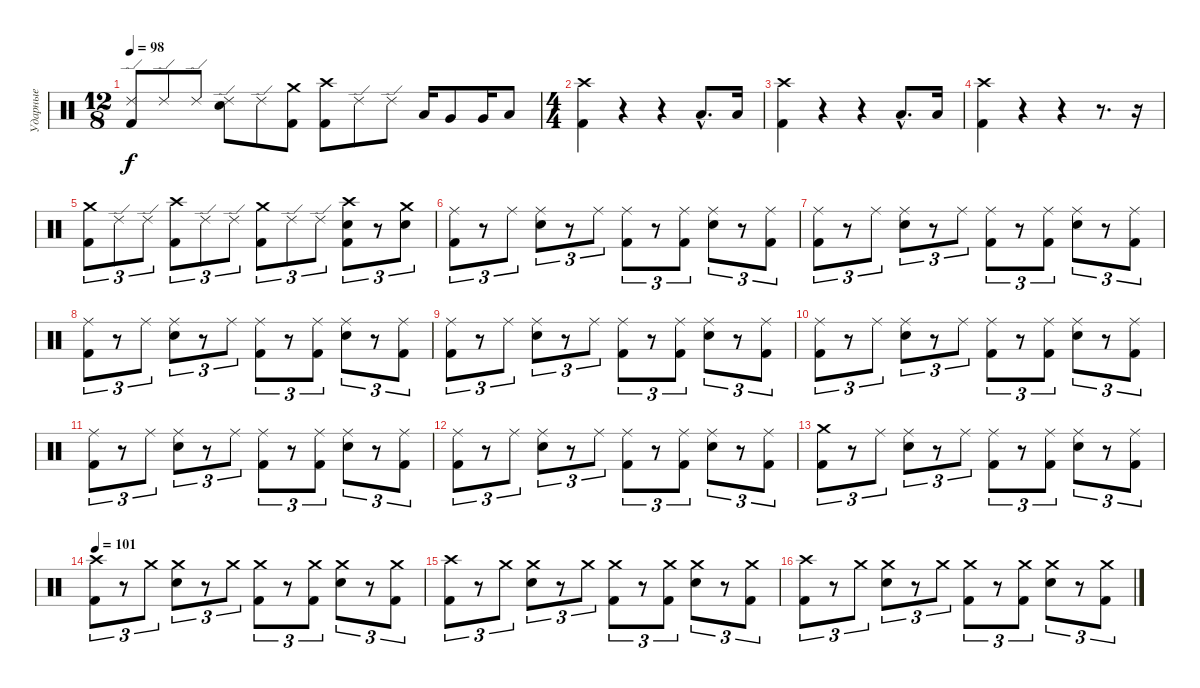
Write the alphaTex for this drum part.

\track ("Ударные" "Ударные") {instrument percussion}
\staff {score}
\articulation defaults
\ts (12 8)
\tempo 98
\clef neutral
\ks c
("Ride (edge) 2" "Kick (hit) 2").8{dy f} "Ride (edge) 2".8 "Ride (edge) 2".8 ("Ride (edge) 2" "Snare (hit) 2").8 "Ride (edge) 2".8 ("Crash medium (hit)" "Kick (hit) 2").8 ("Crash high (hit)" "Kick (hit) 2").8 "Ride (edge) 2".8 "Ride (edge) 2".8 "Low Tom (hit)".16 "Very Low Tom (hit)".8 "Very Low Tom (hit)".16 "Low Floor Tom (hit)".8 |
\ts (4 4)
("Crash high (hit)" "Kick (hit) 2").4 r.4 r.4 "Low Tom (hit)"{hac}.8{d} "Low Tom (hit)".16 |
("Crash high (hit)" "Kick (hit) 2").4 r.4 r.4 "Low Tom (hit)"{hac}.8{d} "Low Tom (hit)".16 |
("Crash high (hit)" "Kick (hit) 2").4 r.4 r.4 r.8{d} r.16 |
("Crash medium (hit)" "Kick (hit) 2").8{tu (3 2)} "Ride (edge) 2".8{tu (3 2)} "Ride (edge) 2".8{tu (3 2)} ("Crash high (hit)" "Kick (hit) 2").8{tu (3 2)} "Ride (edge) 2".8{tu (3 2)} "Ride (edge) 2".8{tu (3 2)} ("Crash medium (hit)" "Kick (hit) 2").8{tu (3 2)} "Ride (edge) 2".8{tu (3 2)} "Ride (edge) 2".8{tu (3 2)} ("Crash high (hit)" "Snare (hit) 2" "Kick (hit) 2").8{tu (3 2)} r.8{tu (3 2)} ("Crash medium (hit)" "Snare (hit) 2").8{tu (3 2)} |
("Ride (middle)" "Kick (hit) 2").8{tu (3 2)} r.8{tu (3 2)} "Ride (middle)".8{tu (3 2)} ("Ride (middle)" "Snare (hit) 2").8{tu (3 2)} r.8{tu (3 2)} "Ride (middle)".8{tu (3 2)} ("Ride (middle)" "Kick (hit) 2").8{tu (3 2)} r.8{tu (3 2)} ("Ride (middle)" "Kick (hit) 2").8{tu (3 2)} ("Ride (middle)" "Snare (hit) 2").8{tu (3 2)} r.8{tu (3 2)} ("Ride (middle)" "Kick (hit) 2").8{tu (3 2)} |
("Ride (middle)" "Kick (hit) 2").8{tu (3 2)} r.8{tu (3 2)} "Ride (middle)".8{tu (3 2)} ("Ride (middle)" "Snare (hit) 2").8{tu (3 2)} r.8{tu (3 2)} "Ride (middle)".8{tu (3 2)} ("Ride (middle)" "Kick (hit) 2").8{tu (3 2)} r.8{tu (3 2)} ("Ride (middle)" "Kick (hit) 2").8{tu (3 2)} ("Ride (middle)" "Snare (hit) 2").8{tu (3 2)} r.8{tu (3 2)} ("Ride (middle)" "Kick (hit) 2").8{tu (3 2)} |
("Ride (middle)" "Kick (hit) 2").8{tu (3 2)} r.8{tu (3 2)} "Ride (middle)".8{tu (3 2)} ("Ride (middle)" "Snare (hit) 2").8{tu (3 2)} r.8{tu (3 2)} "Ride (middle)".8{tu (3 2)} ("Ride (middle)" "Kick (hit) 2").8{tu (3 2)} r.8{tu (3 2)} ("Ride (middle)" "Kick (hit) 2").8{tu (3 2)} ("Ride (middle)" "Snare (hit) 2").8{tu (3 2)} r.8{tu (3 2)} ("Ride (middle)" "Kick (hit) 2").8{tu (3 2)} |
("Ride (middle)" "Kick (hit) 2").8{tu (3 2)} r.8{tu (3 2)} "Ride (middle)".8{tu (3 2)} ("Ride (middle)" "Snare (hit) 2").8{tu (3 2)} r.8{tu (3 2)} "Ride (middle)".8{tu (3 2)} ("Ride (middle)" "Kick (hit) 2").8{tu (3 2)} r.8{tu (3 2)} ("Ride (middle)" "Kick (hit) 2").8{tu (3 2)} ("Ride (middle)" "Snare (hit) 2").8{tu (3 2)} r.8{tu (3 2)} ("Ride (middle)" "Kick (hit) 2").8{tu (3 2)} |
("Ride (middle)" "Kick (hit) 2").8{tu (3 2)} r.8{tu (3 2)} "Ride (middle)".8{tu (3 2)} ("Ride (middle)" "Snare (hit) 2").8{tu (3 2)} r.8{tu (3 2)} "Ride (middle)".8{tu (3 2)} ("Ride (middle)" "Kick (hit) 2").8{tu (3 2)} r.8{tu (3 2)} ("Ride (middle)" "Kick (hit) 2").8{tu (3 2)} ("Ride (middle)" "Snare (hit) 2").8{tu (3 2)} r.8{tu (3 2)} ("Ride (middle)" "Kick (hit) 2").8{tu (3 2)} |
("Ride (middle)" "Kick (hit) 2").8{tu (3 2)} r.8{tu (3 2)} "Ride (middle)".8{tu (3 2)} ("Ride (middle)" "Snare (hit) 2").8{tu (3 2)} r.8{tu (3 2)} "Ride (middle)".8{tu (3 2)} ("Ride (middle)" "Kick (hit) 2").8{tu (3 2)} r.8{tu (3 2)} ("Ride (middle)" "Kick (hit) 2").8{tu (3 2)} ("Ride (middle)" "Snare (hit) 2").8{tu (3 2)} r.8{tu (3 2)} ("Ride (middle)" "Kick (hit) 2").8{tu (3 2)} |
("Ride (middle)" "Kick (hit) 2").8{tu (3 2)} r.8{tu (3 2)} "Ride (middle)".8{tu (3 2)} ("Ride (middle)" "Snare (hit) 2").8{tu (3 2)} r.8{tu (3 2)} "Ride (middle)".8{tu (3 2)} ("Ride (middle)" "Kick (hit) 2").8{tu (3 2)} r.8{tu (3 2)} ("Ride (middle)" "Kick (hit) 2").8{tu (3 2)} ("Ride (middle)" "Snare (hit) 2").8{tu (3 2)} r.8{tu (3 2)} ("Ride (middle)" "Kick (hit) 2").8{tu (3 2)} |
("Crash medium (hit)" "Kick (hit) 2").8{tu (3 2)} r.8{tu (3 2)} "Ride (middle)".8{tu (3 2)} ("Ride (middle)" "Snare (hit) 2").8{tu (3 2)} r.8{tu (3 2)} "Ride (middle)".8{tu (3 2)} ("Ride (middle)" "Kick (hit) 2").8{tu (3 2)} r.8{tu (3 2)} ("Ride (middle)" "Kick (hit) 2").8{tu (3 2)} ("Ride (middle)" "Snare (hit) 2").8{tu (3 2)} r.8{tu (3 2)} ("Ride (middle)" "Kick (hit) 2").8{tu (3 2)} |
\tempo 101
("Crash high (hit)" "Kick (hit) 2").8{tu (3 2)} r.8{tu (3 2)} "Crash medium (hit)".8{tu (3 2)} ("Crash medium (hit)" "Snare (hit) 2").8{tu (3 2)} r.8{tu (3 2)} "Crash medium (hit)".8{tu (3 2)} ("Crash medium (hit)" "Kick (hit) 2").8{tu (3 2)} r.8{tu (3 2)} ("Crash medium (hit)" "Kick (hit) 2").8{tu (3 2)} ("Crash medium (hit)" "Snare (hit) 2").8{tu (3 2)} r.8{tu (3 2)} ("Crash medium (hit)" "Kick (hit) 2").8{tu (3 2)} |
("Crash high (hit)" "Kick (hit) 2").8{tu (3 2)} r.8{tu (3 2)} "Crash medium (hit)".8{tu (3 2)} ("Crash medium (hit)" "Snare (hit) 2").8{tu (3 2)} r.8{tu (3 2)} "Crash medium (hit)".8{tu (3 2)} ("Crash medium (hit)" "Kick (hit) 2").8{tu (3 2)} r.8{tu (3 2)} ("Crash medium (hit)" "Kick (hit) 2").8{tu (3 2)} ("Crash medium (hit)" "Snare (hit) 2").8{tu (3 2)} r.8{tu (3 2)} ("Crash medium (hit)" "Kick (hit) 2").8{tu (3 2)} |
("Crash high (hit)" "Kick (hit) 2").8{tu (3 2)} r.8{tu (3 2)} "Crash medium (hit)".8{tu (3 2)} ("Crash medium (hit)" "Snare (hit) 2").8{tu (3 2)} r.8{tu (3 2)} "Crash medium (hit)".8{tu (3 2)} ("Crash medium (hit)" "Kick (hit) 2").8{tu (3 2)} r.8{tu (3 2)} ("Crash medium (hit)" "Kick (hit) 2").8{tu (3 2)} ("Crash medium (hit)" "Snare (hit) 2").8{tu (3 2)} r.8{tu (3 2)} ("Crash medium (hit)" "Kick (hit) 2").8{tu (3 2)}
